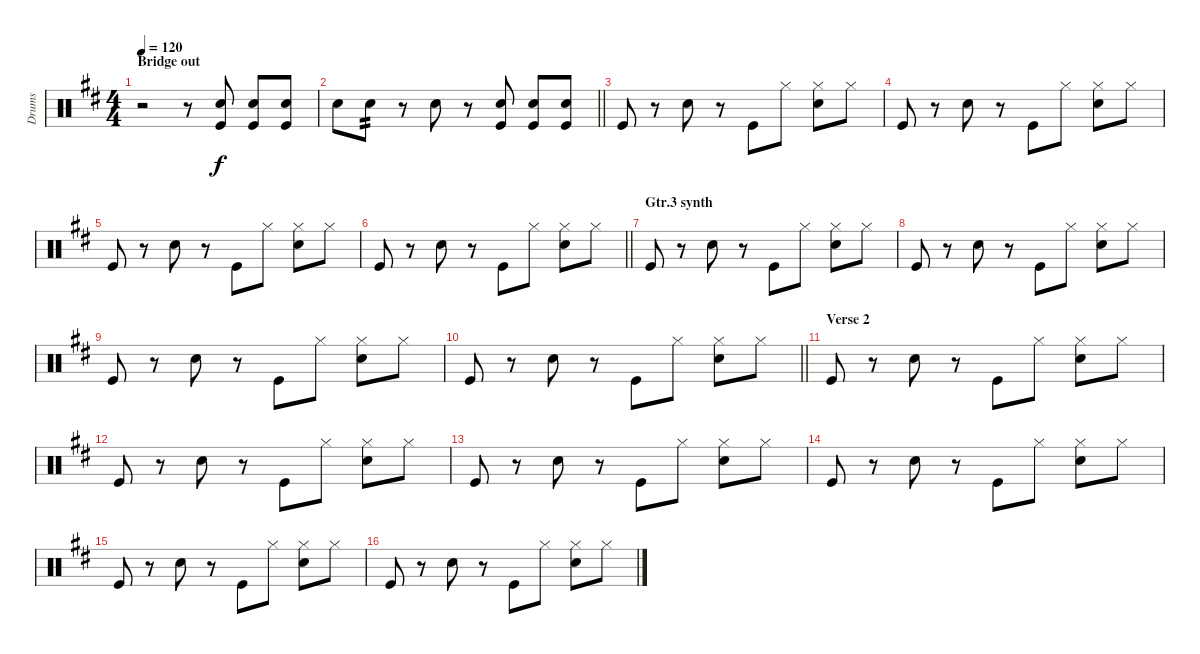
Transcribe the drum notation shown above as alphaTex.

\track ("Drums" "Drums") {instrument percussion}
\staff {score}
\articulation defaults
\ts (4 4)
\section ("" "Bridge out")
\tempo 120
\clef neutral
\ks d
r.2{dy f} r.8 ("Snare (hit) 2" "Kick (hit)").8 ("Snare (hit) 2" "Kick (hit)").8 ("Snare (hit) 2" "Kick (hit)").8 |
\barLineRight lightlight "Electric Snare (hit)".8 "Snare (hit) 2".8{tp 2}
r.8 "Electric Snare (hit)".8 r.8 ("Snare (hit) 2" "Kick (hit)").8 ("Snare (hit) 2" "Kick (hit)").8 ("Snare (hit) 2" "Kick (hit)").8 |
\section ("" "")
"Kick (hit)".8 r.8 "Snare (hit) 2".8 r.8 "Kick (hit)".8 "Hi-Hat (closed)".8 ("Hi-Hat (closed)" "Snare (hit) 2").8 "Hi-Hat (closed)".8 |
"Kick (hit)".8 r.8 "Snare (hit) 2".8 r.8 "Kick (hit)".8 "Hi-Hat (closed)".8 ("Hi-Hat (closed)" "Snare (hit) 2").8 "Hi-Hat (closed)".8 |
"Kick (hit)".8 r.8 "Snare (hit) 2".8 r.8 "Kick (hit)".8 "Hi-Hat (closed)".8 ("Hi-Hat (closed)" "Snare (hit) 2").8 "Hi-Hat (closed)".8 |
\barLineRight lightlight "Kick (hit)".8
r.8 "Snare (hit) 2".8 r.8 "Kick (hit)".8 "Hi-Hat (closed)".8 ("Hi-Hat (closed)" "Snare (hit) 2").8 "Hi-Hat (closed)".8 |
\section ("" "Gtr.3 synth")
"Kick (hit)".8 r.8 "Snare (hit) 2".8 r.8 "Kick (hit)".8 "Hi-Hat (closed)".8 ("Hi-Hat (closed)" "Snare (hit) 2").8 "Hi-Hat (closed)".8 |
"Kick (hit)".8 r.8 "Snare (hit) 2".8 r.8 "Kick (hit)".8 "Hi-Hat (closed)".8 ("Hi-Hat (closed)" "Snare (hit) 2").8 "Hi-Hat (closed)".8 |
"Kick (hit)".8 r.8 "Snare (hit) 2".8 r.8 "Kick (hit)".8 "Hi-Hat (closed)".8 ("Hi-Hat (closed)" "Snare (hit) 2").8 "Hi-Hat (closed)".8 |
\barLineRight lightlight "Kick (hit)".8
r.8 "Snare (hit) 2".8 r.8 "Kick (hit)".8 "Hi-Hat (closed)".8 ("Hi-Hat (closed)" "Snare (hit) 2").8 "Hi-Hat (closed)".8 |
\section ("" "Verse 2")
"Kick (hit)".8 r.8 "Snare (hit) 2".8 r.8 "Kick (hit)".8 "Hi-Hat (closed)".8 ("Hi-Hat (closed)" "Snare (hit) 2").8 "Hi-Hat (closed)".8 |
"Kick (hit)".8 r.8 "Snare (hit) 2".8 r.8 "Kick (hit)".8 "Hi-Hat (closed)".8 ("Hi-Hat (closed)" "Snare (hit) 2").8 "Hi-Hat (closed)".8 |
"Kick (hit)".8 r.8 "Snare (hit) 2".8 r.8 "Kick (hit)".8 "Hi-Hat (closed)".8 ("Hi-Hat (closed)" "Snare (hit) 2").8 "Hi-Hat (closed)".8 |
"Kick (hit)".8 r.8 "Snare (hit) 2".8 r.8 "Kick (hit)".8 "Hi-Hat (closed)".8 ("Hi-Hat (closed)" "Snare (hit) 2").8 "Hi-Hat (closed)".8 |
"Kick (hit)".8 r.8 "Snare (hit) 2".8 r.8 "Kick (hit)".8 "Hi-Hat (closed)".8 ("Hi-Hat (closed)" "Snare (hit) 2").8 "Hi-Hat (closed)".8 |
"Kick (hit)".8 r.8 "Snare (hit) 2".8 r.8 "Kick (hit)".8 "Hi-Hat (closed)".8 ("Hi-Hat (closed)" "Snare (hit) 2").8 "Hi-Hat (closed)".8
